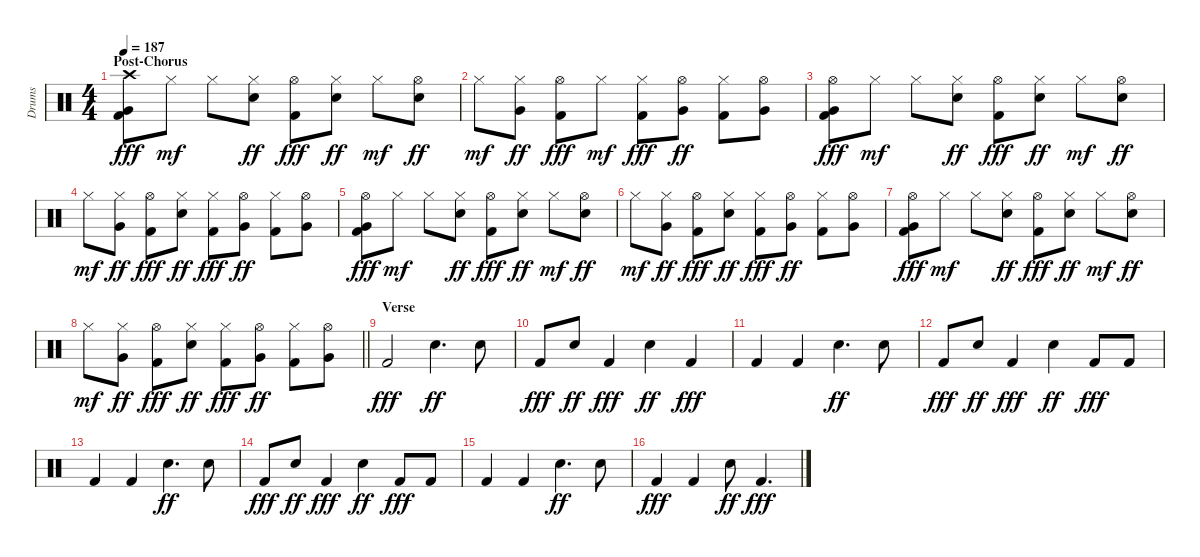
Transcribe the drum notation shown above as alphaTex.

\track ("Drums" "Drums") {instrument percussion}
\staff {score}
\articulation defaults
\ts (4 4)
\section ("" "Post-Chorus")
\tempo 187
\clef neutral
\ks c
("Crash high (hit)" "Very Low Tom (hit)" "Kick (hit) 2").8{dy fff} "Hi-Hat (closed)".8{dy mf} "Hi-Hat (closed)".8 ("Hi-Hat (closed)" "Snare (hit) 2").8{dy ff} ("Hi-Hat (open)" "Kick (hit) 2").8{dy fff} ("Hi-Hat (closed)" "Snare (hit) 2").8{dy ff} "Hi-Hat (closed)".8{dy mf} ("Hi-Hat (open)" "Snare (hit) 2").8{dy ff} |
"Hi-Hat (closed)".8{dy mf} ("Hi-Hat (closed)" "Very Low Tom (hit)").8{dy ff} ("Hi-Hat (open)" "Kick (hit) 2").8{dy fff} "Hi-Hat (closed)".8{dy mf} ("Hi-Hat (closed)" "Kick (hit) 2").8{dy fff} ("Hi-Hat (open)" "Very Low Tom (hit)").8{dy ff} ("Hi-Hat (closed)" "Kick (hit) 2").8 ("Hi-Hat (open)" "Very Low Tom (hit)").8 |
("Hi-Hat (open)" "Very Low Tom (hit)" "Kick (hit) 2").8{dy fff} "Hi-Hat (closed)".8{dy mf} "Hi-Hat (closed)".8 ("Hi-Hat (closed)" "Snare (hit) 2").8{dy ff} ("Hi-Hat (open)" "Kick (hit) 2").8{dy fff} ("Hi-Hat (closed)" "Snare (hit) 2").8{dy ff} "Hi-Hat (closed)".8{dy mf} ("Hi-Hat (open)" "Snare (hit) 2").8{dy ff} |
"Hi-Hat (closed)".8{dy mf} ("Hi-Hat (closed)" "Very Low Tom (hit)").8{dy ff} ("Hi-Hat (open)" "Kick (hit) 2").8{dy fff} ("Hi-Hat (closed)" "Snare (hit) 2").8{dy ff} ("Hi-Hat (closed)" "Kick (hit) 2").8{dy fff} ("Hi-Hat (open)" "Very Low Tom (hit)").8{dy ff} ("Hi-Hat (closed)" "Kick (hit) 2").8 ("Hi-Hat (open)" "Very Low Tom (hit)").8 |
("Hi-Hat (open)" "Very Low Tom (hit)" "Kick (hit) 2").8{dy fff} "Hi-Hat (closed)".8{dy mf} "Hi-Hat (closed)".8 ("Hi-Hat (closed)" "Snare (hit) 2").8{dy ff} ("Hi-Hat (open)" "Kick (hit) 2").8{dy fff} ("Hi-Hat (closed)" "Snare (hit) 2").8{dy ff} "Hi-Hat (closed)".8{dy mf} ("Hi-Hat (open)" "Snare (hit) 2").8{dy ff} |
"Hi-Hat (closed)".8{dy mf} ("Hi-Hat (closed)" "Very Low Tom (hit)").8{dy ff} ("Hi-Hat (open)" "Kick (hit) 2").8{dy fff} ("Hi-Hat (closed)" "Snare (hit) 2").8{dy ff} ("Hi-Hat (closed)" "Kick (hit) 2").8{dy fff} ("Hi-Hat (open)" "Very Low Tom (hit)").8{dy ff} ("Hi-Hat (closed)" "Kick (hit) 2").8 ("Hi-Hat (open)" "Very Low Tom (hit)").8 |
("Hi-Hat (open)" "Very Low Tom (hit)" "Kick (hit) 2").8{dy fff} "Hi-Hat (closed)".8{dy mf} "Hi-Hat (closed)".8 ("Hi-Hat (closed)" "Snare (hit) 2").8{dy ff} ("Hi-Hat (open)" "Kick (hit) 2").8{dy fff} ("Hi-Hat (closed)" "Snare (hit) 2").8{dy ff} "Hi-Hat (closed)".8{dy mf} ("Hi-Hat (open)" "Snare (hit) 2").8{dy ff} |
\barLineRight lightlight "Hi-Hat (closed)".8{dy mf}
("Hi-Hat (closed)" "Very Low Tom (hit)").8{dy ff} ("Hi-Hat (open)" "Kick (hit) 2").8{dy fff} ("Hi-Hat (closed)" "Snare (hit) 2").8{dy ff} ("Hi-Hat (closed)" "Kick (hit) 2").8{dy fff} ("Hi-Hat (open)" "Very Low Tom (hit)").8{dy ff} ("Hi-Hat (closed)" "Kick (hit) 2").8 ("Hi-Hat (open)" "Very Low Tom (hit)").8 |
\section ("" "Verse")
"Kick (hit) 2".2{dy fff} "Snare (hit) 2".4{d dy ff} "Snare (hit) 2".8 |
"Kick (hit) 2".8{dy fff} "Snare (hit) 2".8{dy ff} "Kick (hit) 2".4{dy fff} "Snare (hit) 2".4{dy ff} "Kick (hit) 2".4{dy fff} |
"Kick (hit) 2".4 "Kick (hit) 2".4 "Snare (hit) 2".4{d dy ff} "Snare (hit) 2".8 |
"Kick (hit) 2".8{dy fff} "Snare (hit) 2".8{dy ff} "Kick (hit) 2".4{dy fff} "Snare (hit) 2".4{dy ff} "Kick (hit) 2".8{dy fff} "Kick (hit) 2".8 |
"Kick (hit) 2".4 "Kick (hit) 2".4 "Snare (hit) 2".4{d dy ff} "Snare (hit) 2".8 |
"Kick (hit) 2".8{dy fff} "Snare (hit) 2".8{dy ff} "Kick (hit) 2".4{dy fff} "Snare (hit) 2".4{dy ff} "Kick (hit) 2".8{dy fff} "Kick (hit) 2".8 |
"Kick (hit) 2".4 "Kick (hit) 2".4 "Snare (hit) 2".4{d dy ff} "Snare (hit) 2".8 |
"Kick (hit) 2".4{dy fff} "Kick (hit) 2".4 "Snare (hit) 2".8{dy ff} "Kick (hit) 2".4{d dy fff}
